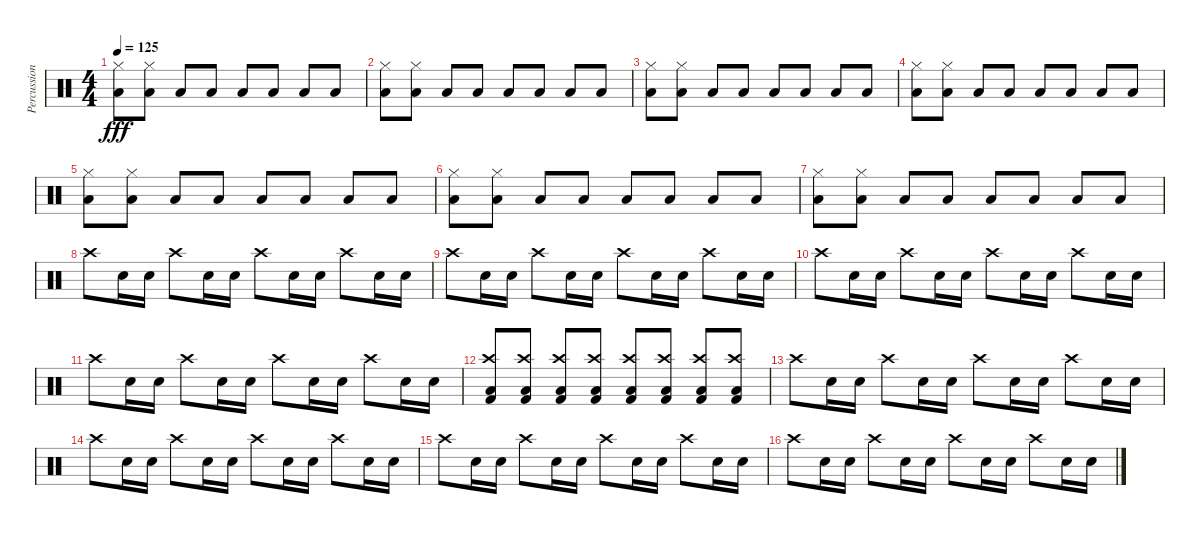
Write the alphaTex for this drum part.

\track ("Percussion" "Percussion") {instrument percussion}
\staff {score}
\articulation defaults
\ts (4 4)
\tempo 125
\clef neutral
\ks c
("Low Floor Tom (hit)" "Hi-Hat (closed)").8{dy fff} ("Low Floor Tom (hit)" "Hi-Hat (closed)").8 "Low Floor Tom (hit)".8 "Low Floor Tom (hit)".8 "Low Floor Tom (hit)".8 "Low Floor Tom (hit)".8 "Low Floor Tom (hit)".8 "Low Floor Tom (hit)".8 |
("Low Floor Tom (hit)" "Hi-Hat (closed)").8 ("Low Floor Tom (hit)" "Hi-Hat (closed)").8 "Low Floor Tom (hit)".8 "Low Floor Tom (hit)".8 "Low Floor Tom (hit)".8 "Low Floor Tom (hit)".8 "Low Floor Tom (hit)".8 "Low Floor Tom (hit)".8 |
("Low Floor Tom (hit)" "Hi-Hat (closed)").8 ("Low Floor Tom (hit)" "Hi-Hat (closed)").8 "Low Floor Tom (hit)".8 "Low Floor Tom (hit)".8 "Low Floor Tom (hit)".8 "Low Floor Tom (hit)".8 "Low Floor Tom (hit)".8 "Low Floor Tom (hit)".8 |
("Low Floor Tom (hit)" "Hi-Hat (closed)").8 ("Low Floor Tom (hit)" "Hi-Hat (closed)").8 "Low Floor Tom (hit)".8 "Low Floor Tom (hit)".8 "Low Floor Tom (hit)".8 "Low Floor Tom (hit)".8 "Low Floor Tom (hit)".8 "Low Floor Tom (hit)".8 |
("Low Floor Tom (hit)" "Hi-Hat (closed)").8 ("Low Floor Tom (hit)" "Hi-Hat (closed)").8 "Low Floor Tom (hit)".8 "Low Floor Tom (hit)".8 "Low Floor Tom (hit)".8 "Low Floor Tom (hit)".8 "Low Floor Tom (hit)".8 "Low Floor Tom (hit)".8 |
("Low Floor Tom (hit)" "Hi-Hat (closed)").8 ("Low Floor Tom (hit)" "Hi-Hat (closed)").8 "Low Floor Tom (hit)".8 "Low Floor Tom (hit)".8 "Low Floor Tom (hit)".8 "Low Floor Tom (hit)".8 "Low Floor Tom (hit)".8 "Low Floor Tom (hit)".8 |
("Low Floor Tom (hit)" "Hi-Hat (closed)").8 ("Low Floor Tom (hit)" "Hi-Hat (closed)").8 "Low Floor Tom (hit)".8 "Low Floor Tom (hit)".8 "Low Floor Tom (hit)".8 "Low Floor Tom (hit)".8 "Low Floor Tom (hit)".8 "Low Floor Tom (hit)".8 |
"Crash high (hit)".8 "Snare (hit) 2".16 "Snare (hit) 2".16 "Crash high (hit)".8 "Snare (hit) 2".16 "Snare (hit) 2".16 "Crash high (hit)".8 "Snare (hit) 2".16 "Snare (hit) 2".16 "Crash high (hit)".8 "Snare (hit) 2".16 "Snare (hit) 2".16 |
"Crash high (hit)".8 "Snare (hit) 2".16 "Snare (hit) 2".16 "Crash high (hit)".8 "Snare (hit) 2".16 "Snare (hit) 2".16 "Crash high (hit)".8 "Snare (hit) 2".16 "Snare (hit) 2".16 "Crash high (hit)".8 "Snare (hit) 2".16 "Snare (hit) 2".16 |
"Crash high (hit)".8 "Snare (hit) 2".16 "Snare (hit) 2".16 "Crash high (hit)".8 "Snare (hit) 2".16 "Snare (hit) 2".16 "Crash high (hit)".8 "Snare (hit) 2".16 "Snare (hit) 2".16 "Crash high (hit)".8 "Snare (hit) 2".16 "Snare (hit) 2".16 |
"Crash high (hit)".8 "Snare (hit) 2".16 "Snare (hit) 2".16 "Crash high (hit)".8 "Snare (hit) 2".16 "Snare (hit) 2".16 "Crash high (hit)".8 "Snare (hit) 2".16 "Snare (hit) 2".16 "Crash high (hit)".8 "Snare (hit) 2".16 "Snare (hit) 2".16 |
("Low Floor Tom (hit)" "Kick (hit) 2" "Crash high (hit)").8 ("Low Floor Tom (hit)" "Kick (hit) 2" "Crash high (hit)").8 ("Low Floor Tom (hit)" "Kick (hit) 2" "Crash high (hit)").8 ("Low Floor Tom (hit)" "Kick (hit) 2" "Crash high (hit)").8 ("Low Floor Tom (hit)" "Kick (hit) 2" "Crash high (hit)").8 ("Low Floor Tom (hit)" "Kick (hit) 2" "Crash high (hit)").8 ("Low Floor Tom (hit)" "Kick (hit) 2" "Crash high (hit)").8 ("Low Floor Tom (hit)" "Kick (hit) 2" "Crash high (hit)").8 |
"Crash high (hit)".8 "Snare (hit) 2".16 "Snare (hit) 2".16 "Crash high (hit)".8 "Snare (hit) 2".16 "Snare (hit) 2".16 "Crash high (hit)".8 "Snare (hit) 2".16 "Snare (hit) 2".16 "Crash high (hit)".8 "Snare (hit) 2".16 "Snare (hit) 2".16 |
"Crash high (hit)".8 "Snare (hit) 2".16 "Snare (hit) 2".16 "Crash high (hit)".8 "Snare (hit) 2".16 "Snare (hit) 2".16 "Crash high (hit)".8 "Snare (hit) 2".16 "Snare (hit) 2".16 "Crash high (hit)".8 "Snare (hit) 2".16 "Snare (hit) 2".16 |
"Crash high (hit)".8 "Snare (hit) 2".16 "Snare (hit) 2".16 "Crash high (hit)".8 "Snare (hit) 2".16 "Snare (hit) 2".16 "Crash high (hit)".8 "Snare (hit) 2".16 "Snare (hit) 2".16 "Crash high (hit)".8 "Snare (hit) 2".16 "Snare (hit) 2".16 |
"Crash high (hit)".8 "Snare (hit) 2".16 "Snare (hit) 2".16 "Crash high (hit)".8 "Snare (hit) 2".16 "Snare (hit) 2".16 "Crash high (hit)".8 "Snare (hit) 2".16 "Snare (hit) 2".16 "Crash high (hit)".8 "Snare (hit) 2".16 "Snare (hit) 2".16
